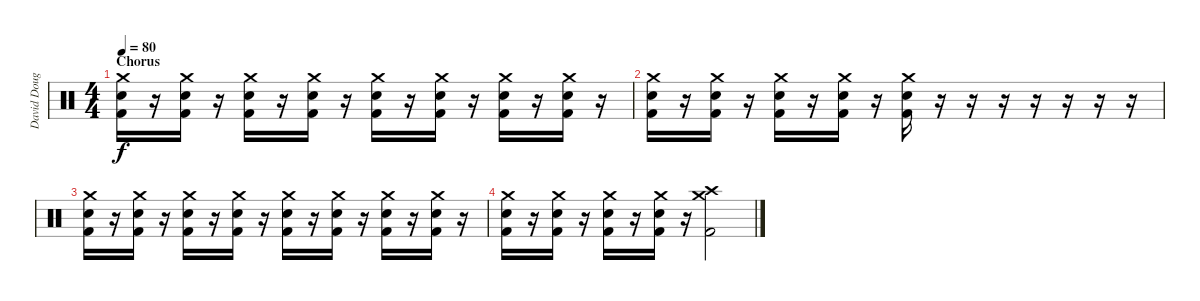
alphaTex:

\track ("David Douglas" "David Doug") {instrument percussion}
\staff {score}
\articulation defaults
\ts (4 4)
\section ("" "Chorus")
\tempo 80
\clef neutral
\ks c
("Crash medium (hit)" "Electric Snare (hit)" "Kick (hit) 2").16{dy f} r.16 ("Crash medium (hit)" "Electric Snare (hit)" "Kick (hit) 2").16 r.16 ("Crash medium (hit)" "Electric Snare (hit)" "Kick (hit) 2").16 r.16 ("Crash medium (hit)" "Electric Snare (hit)" "Kick (hit) 2").16 r.16 ("Crash medium (hit)" "Electric Snare (hit)" "Kick (hit) 2").16 r.16 ("Crash medium (hit)" "Electric Snare (hit)" "Kick (hit) 2").16 r.16 ("Crash medium (hit)" "Electric Snare (hit)" "Kick (hit) 2").16 r.16 ("Crash medium (hit)" "Electric Snare (hit)" "Kick (hit) 2").16 r.16 |
("Crash medium (hit)" "Electric Snare (hit)" "Kick (hit) 2").16 r.16 ("Crash medium (hit)" "Electric Snare (hit)" "Kick (hit) 2").16 r.16 ("Crash medium (hit)" "Electric Snare (hit)" "Kick (hit) 2").16 r.16 ("Crash medium (hit)" "Electric Snare (hit)" "Kick (hit) 2").16 r.16 ("Crash medium (hit)" "Electric Snare (hit)" "Kick (hit) 2").16 r.16 r.16 r.16 r.16 r.16 r.16 r.16 |
("Crash medium (hit)" "Electric Snare (hit)" "Kick (hit) 2").16 r.16 ("Crash medium (hit)" "Electric Snare (hit)" "Kick (hit) 2").16 r.16 ("Crash medium (hit)" "Electric Snare (hit)" "Kick (hit) 2").16 r.16 ("Crash medium (hit)" "Electric Snare (hit)" "Kick (hit) 2").16 r.16 ("Crash medium (hit)" "Electric Snare (hit)" "Kick (hit) 2").16 r.16 ("Crash medium (hit)" "Electric Snare (hit)" "Kick (hit) 2").16 r.16 ("Crash medium (hit)" "Electric Snare (hit)" "Kick (hit) 2").16 r.16 ("Crash medium (hit)" "Electric Snare (hit)" "Kick (hit) 2").16 r.16 |
("Crash medium (hit)" "Electric Snare (hit)" "Kick (hit) 2").16 r.16 ("Crash medium (hit)" "Electric Snare (hit)" "Kick (hit) 2").16 r.16 ("Crash medium (hit)" "Electric Snare (hit)" "Kick (hit) 2").16 r.16 ("Crash medium (hit)" "Electric Snare (hit)" "Kick (hit) 2").16 r.16 ("Crash medium (hit)" "Crash high (hit)" "Kick (hit) 2").2
